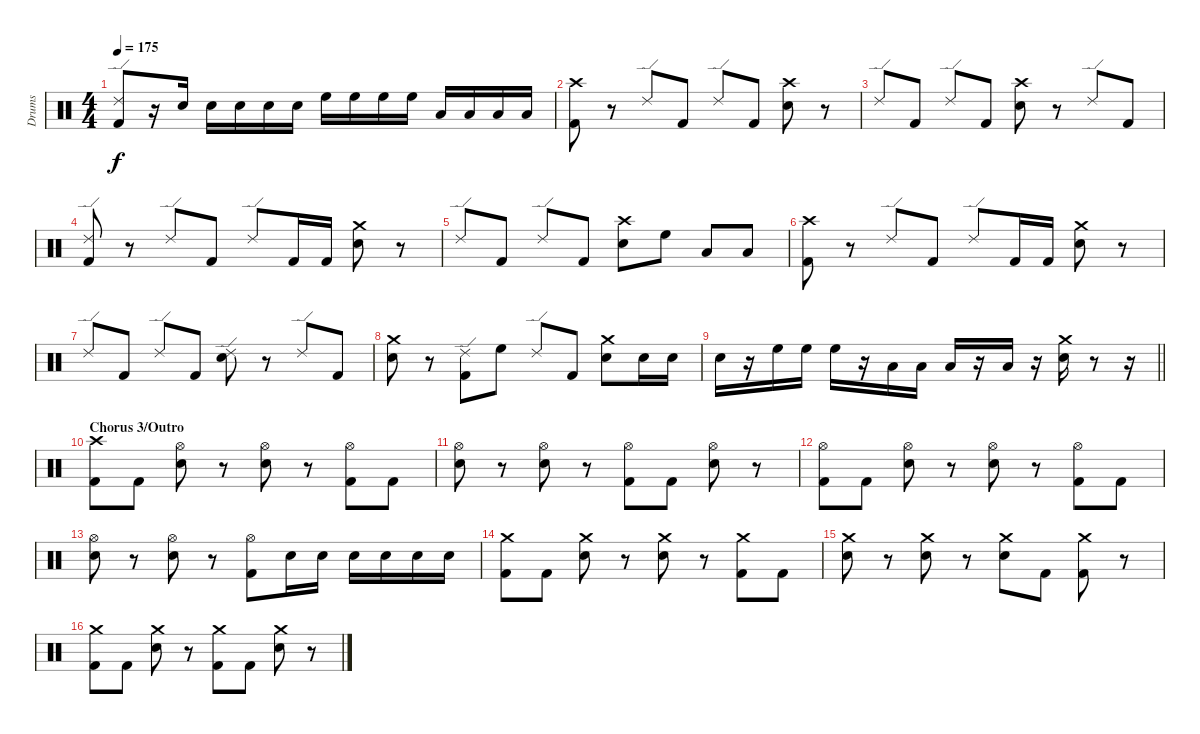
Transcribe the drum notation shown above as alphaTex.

\track ("Drums" "Drums") {instrument percussion}
\staff {score}
\articulation defaults
\ts (4 4)
\tempo 175
\clef neutral
\ks c
("Ride (edge) 2" "Kick (hit) 2").8{dy f} r.16 "Snare (hit) 2".16 "Snare (hit) 2".16 "Snare (hit) 2".16 "Snare (hit) 2".16 "Snare (hit) 2".16 "High Floor Tom (hit)".16 "High Floor Tom (hit)".16 "High Floor Tom (hit)".16 "High Floor Tom (hit)".16 "Low Floor Tom (hit)".16 "Low Floor Tom (hit)".16 "Low Floor Tom (hit)".16 "Low Floor Tom (hit)".16 |
("Crash high (hit)" "Kick (hit) 2").8 r.8 "Ride (edge) 2".8 "Kick (hit) 2".8 "Ride (edge) 2".8 "Kick (hit) 2".8 ("Crash high (hit)" "Snare (hit) 2").8 r.8 |
"Ride (edge) 2".8 "Kick (hit) 2".8 "Ride (edge) 2".8 "Kick (hit) 2".8 ("Crash high (hit)" "Snare (hit) 2").8 r.8 "Ride (edge) 2".8 "Kick (hit) 2".8 |
("Ride (edge) 2" "Kick (hit) 2").8 r.8 "Ride (edge) 2".8 "Kick (hit) 2".8 "Ride (edge) 2".8 "Kick (hit) 2".16 "Kick (hit) 2".16 ("Crash medium (hit)" "Snare (hit) 2").8 r.8 |
"Ride (edge) 2".8 "Kick (hit) 2".8 "Ride (edge) 2".8 "Kick (hit) 2".8 ("Crash high (hit)" "Snare (hit) 2").8 "High Floor Tom (hit)".8 "Low Floor Tom (hit)".8 "Low Floor Tom (hit)".8 |
("Crash high (hit)" "Kick (hit) 2").8 r.8 "Ride (edge) 2".8 "Kick (hit) 2".8 "Ride (edge) 2".8 "Kick (hit) 2".16 "Kick (hit) 2".16 ("Crash medium (hit)" "Snare (hit) 2").8 r.8 |
"Ride (edge) 2".8 "Kick (hit) 2".8 "Ride (edge) 2".8 "Kick (hit) 2".8 ("Ride (edge) 2" "Snare (hit) 2").8 r.8 "Ride (edge) 2".8 "Kick (hit) 2".8 |
("Crash medium (hit)" "Snare (hit) 2").8 r.8 ("Ride (edge) 2" "Kick (hit) 2").8 "High Floor Tom (hit)".8 "Ride (edge) 2".8 "Kick (hit) 2".8 ("Crash medium (hit)" "Snare (hit) 2").8 "Snare (hit) 2".16 "Snare (hit) 2".16 |
\barLineRight lightlight "Snare (hit) 2".16
r.16 "High Floor Tom (hit)".16 "High Floor Tom (hit)".16 "High Floor Tom (hit)".16 r.16 "Low Floor Tom (hit)".16 "Low Floor Tom (hit)".16 "Low Floor Tom (hit)".16 r.16 "Low Floor Tom (hit)".16 r.16 ("Crash medium (hit)" "Snare (hit) 2").16 r.8 r.16 |
\section ("" "Chorus 3/Outro")
("Crash high (hit)" "Kick (hit) 2").8 "Kick (hit) 2".8 ("Hi-Hat (open)" "Snare (hit) 2").8 r.8 ("Hi-Hat (open)" "Snare (hit) 2").8 r.8 ("Hi-Hat (open)" "Kick (hit) 2").8 "Kick (hit) 2".8 |
("Hi-Hat (open)" "Snare (hit) 2").8 r.8 ("Hi-Hat (open)" "Snare (hit) 2").8 r.8 ("Hi-Hat (open)" "Kick (hit) 2").8 "Kick (hit) 2".8 ("Hi-Hat (open)" "Snare (hit) 2").8 r.8 |
("Hi-Hat (open)" "Kick (hit) 2").8 "Kick (hit) 2".8 ("Hi-Hat (open)" "Snare (hit) 2").8 r.8 ("Hi-Hat (open)" "Snare (hit) 2").8 r.8 ("Hi-Hat (open)" "Kick (hit) 2").8 "Kick (hit) 2".8 |
("Hi-Hat (open)" "Snare (hit) 2").8 r.8 ("Hi-Hat (open)" "Snare (hit) 2").8 r.8 ("Hi-Hat (open)" "Kick (hit) 2").8 "Snare (hit) 2".16 "Snare (hit) 2".16 "Snare (hit) 2".16 "Snare (hit) 2".16 "Snare (hit) 2".16 "Snare (hit) 2".16 |
("Crash medium (hit)" "Kick (hit) 2").8 "Kick (hit) 2".8 ("Crash medium (hit)" "Snare (hit) 2").8 r.8 ("Crash medium (hit)" "Snare (hit) 2").8 r.8 ("Crash medium (hit)" "Kick (hit) 2").8 "Kick (hit) 2".8 |
("Crash medium (hit)" "Snare (hit) 2").8 r.8 ("Crash medium (hit)" "Snare (hit) 2").8 r.8 ("Crash medium (hit)" "Snare (hit) 2").8 "Kick (hit) 2".8 ("Crash medium (hit)" "Kick (hit) 2").8 r.8 |
("Crash medium (hit)" "Kick (hit) 2").8 "Kick (hit) 2".8 ("Crash medium (hit)" "Snare (hit) 2").8 r.8 ("Crash medium (hit)" "Kick (hit) 2").8 "Kick (hit) 2".8 ("Crash medium (hit)" "Snare (hit) 2").8 r.8
